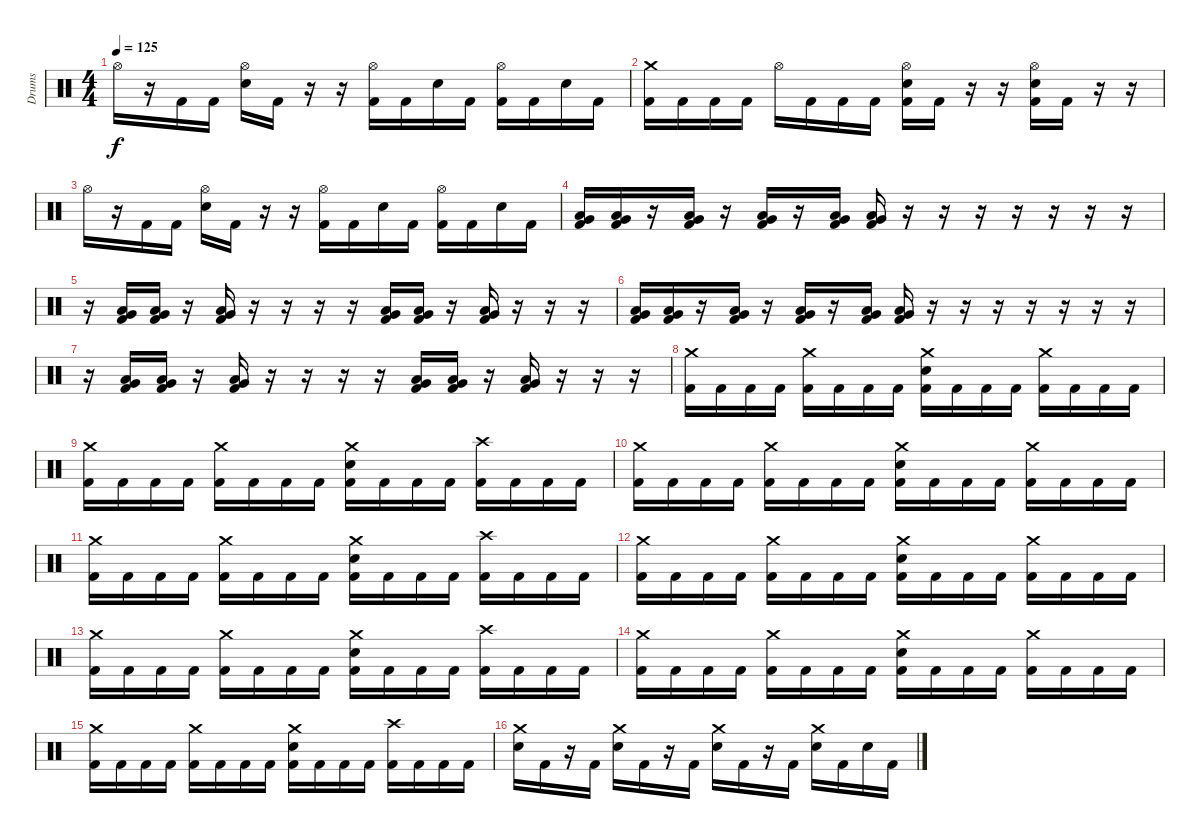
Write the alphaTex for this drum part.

\track ("Drums" "Drums") {instrument percussion}
\staff {score}
\articulation defaults
\ts (4 4)
\tempo 125
\clef neutral
\ks c "Hi-Hat (open)".16{dy f}
r.16 "Kick (hit) 2".16 "Kick (hit) 2".16 ("Hi-Hat (open)" "Electric Snare (hit)").16 "Kick (hit) 2".16 r.16 r.16 ("Hi-Hat (open)" "Kick (hit) 2").16 "Kick (hit) 2".16 "Electric Snare (hit)".16 "Kick (hit) 2".16 ("Hi-Hat (open)" "Kick (hit) 2").16 "Kick (hit) 2".16 "Electric Snare (hit)".16 "Kick (hit) 2".16 |
("Crash medium (hit)" "Kick (hit) 2").16 "Kick (hit) 2".16 "Kick (hit) 2".16 "Kick (hit) 2".16 "Hi-Hat (open)".16 "Kick (hit) 2".16 "Kick (hit) 2".16 "Kick (hit) 2".16 ("Hi-Hat (open)" "Electric Snare (hit)" "Kick (hit) 2").16 "Kick (hit) 2".16 r.16 r.16 ("Hi-Hat (open)" "Electric Snare (hit)" "Kick (hit) 2").16 "Kick (hit) 2".16 r.16 r.16 |
"Hi-Hat (open)".16 r.16 "Kick (hit) 2".16 "Kick (hit) 2".16 ("Hi-Hat (open)" "Electric Snare (hit)").16 "Kick (hit) 2".16 r.16 r.16 ("Hi-Hat (open)" "Kick (hit) 2").16 "Kick (hit) 2".16 "Electric Snare (hit)".16 "Kick (hit) 2".16 ("Hi-Hat (open)" "Kick (hit) 2").16 "Kick (hit) 2".16 "Electric Snare (hit)".16 "Kick (hit) 2".16 |
("Very Low Tom (hit)" "Low Floor Tom (hit)" "Kick (hit) 2").16 ("Very Low Tom (hit)" "Low Floor Tom (hit)" "Kick (hit) 2").16 r.16 ("Very Low Tom (hit)" "Low Floor Tom (hit)" "Kick (hit) 2").16 r.16 ("Very Low Tom (hit)" "Low Floor Tom (hit)" "Kick (hit) 2").16 r.16 ("Very Low Tom (hit)" "Low Floor Tom (hit)" "Kick (hit) 2").16 ("Very Low Tom (hit)" "Low Floor Tom (hit)" "Kick (hit) 2").16 r.16 r.16 r.16 r.16 r.16 r.16 r.16 |
r.16 ("Very Low Tom (hit)" "Low Floor Tom (hit)" "Kick (hit) 2").16 ("Very Low Tom (hit)" "Low Floor Tom (hit)" "Kick (hit) 2").16 r.16 ("Very Low Tom (hit)" "Low Floor Tom (hit)" "Kick (hit) 2").16 r.16 r.16 r.16 r.16 ("Very Low Tom (hit)" "Low Floor Tom (hit)" "Kick (hit) 2").16 ("Very Low Tom (hit)" "Low Floor Tom (hit)" "Kick (hit) 2").16 r.16 ("Very Low Tom (hit)" "Low Floor Tom (hit)" "Kick (hit) 2").16 r.16 r.16 r.16 |
("Very Low Tom (hit)" "Low Floor Tom (hit)" "Kick (hit) 2").16 ("Very Low Tom (hit)" "Low Floor Tom (hit)" "Kick (hit) 2").16 r.16 ("Very Low Tom (hit)" "Low Floor Tom (hit)" "Kick (hit) 2").16 r.16 ("Very Low Tom (hit)" "Low Floor Tom (hit)" "Kick (hit) 2").16 r.16 ("Very Low Tom (hit)" "Low Floor Tom (hit)" "Kick (hit) 2").16 ("Very Low Tom (hit)" "Low Floor Tom (hit)" "Kick (hit) 2").16 r.16 r.16 r.16 r.16 r.16 r.16 r.16 |
r.16 ("Very Low Tom (hit)" "Low Floor Tom (hit)" "Kick (hit) 2").16 ("Very Low Tom (hit)" "Low Floor Tom (hit)" "Kick (hit) 2").16 r.16 ("Very Low Tom (hit)" "Low Floor Tom (hit)" "Kick (hit) 2").16 r.16 r.16 r.16 r.16 ("Very Low Tom (hit)" "Low Floor Tom (hit)" "Kick (hit) 2").16 ("Very Low Tom (hit)" "Low Floor Tom (hit)" "Kick (hit) 2").16 r.16 ("Very Low Tom (hit)" "Low Floor Tom (hit)" "Kick (hit) 2").16 r.16 r.16 r.16 |
("Crash medium (hit)" "Kick (hit) 2").16 "Kick (hit) 2".16 "Kick (hit) 2".16 "Kick (hit) 2".16 ("Crash medium (hit)" "Kick (hit) 2").16 "Kick (hit) 2".16 "Kick (hit) 2".16 "Kick (hit) 2".16 ("Crash medium (hit)" "Electric Snare (hit)" "Kick (hit) 2").16 "Kick (hit) 2".16 "Kick (hit) 2".16 "Kick (hit) 2".16 ("Crash medium (hit)" "Kick (hit) 2").16 "Kick (hit) 2".16 "Kick (hit) 2".16 "Kick (hit) 2".16 |
("Crash medium (hit)" "Kick (hit) 2").16 "Kick (hit) 2".16 "Kick (hit) 2".16 "Kick (hit) 2".16 ("Crash medium (hit)" "Kick (hit) 2").16 "Kick (hit) 2".16 "Kick (hit) 2".16 "Kick (hit) 2".16 ("Crash medium (hit)" "Electric Snare (hit)" "Kick (hit) 2").16 "Kick (hit) 2".16 "Kick (hit) 2".16 "Kick (hit) 2".16 ("Crash high (hit)" "Kick (hit) 2").16 "Kick (hit) 2".16 "Kick (hit) 2".16 "Kick (hit) 2".16 |
("Crash medium (hit)" "Kick (hit) 2").16 "Kick (hit) 2".16 "Kick (hit) 2".16 "Kick (hit) 2".16 ("Crash medium (hit)" "Kick (hit) 2").16 "Kick (hit) 2".16 "Kick (hit) 2".16 "Kick (hit) 2".16 ("Crash medium (hit)" "Electric Snare (hit)" "Kick (hit) 2").16 "Kick (hit) 2".16 "Kick (hit) 2".16 "Kick (hit) 2".16 ("Crash medium (hit)" "Kick (hit) 2").16 "Kick (hit) 2".16 "Kick (hit) 2".16 "Kick (hit) 2".16 |
("Crash medium (hit)" "Kick (hit) 2").16 "Kick (hit) 2".16 "Kick (hit) 2".16 "Kick (hit) 2".16 ("Crash medium (hit)" "Kick (hit) 2").16 "Kick (hit) 2".16 "Kick (hit) 2".16 "Kick (hit) 2".16 ("Crash medium (hit)" "Electric Snare (hit)" "Kick (hit) 2").16 "Kick (hit) 2".16 "Kick (hit) 2".16 "Kick (hit) 2".16 ("Crash high (hit)" "Kick (hit) 2").16 "Kick (hit) 2".16 "Kick (hit) 2".16 "Kick (hit) 2".16 |
("Crash medium (hit)" "Kick (hit) 2").16 "Kick (hit) 2".16 "Kick (hit) 2".16 "Kick (hit) 2".16 ("Crash medium (hit)" "Kick (hit) 2").16 "Kick (hit) 2".16 "Kick (hit) 2".16 "Kick (hit) 2".16 ("Crash medium (hit)" "Electric Snare (hit)" "Kick (hit) 2").16 "Kick (hit) 2".16 "Kick (hit) 2".16 "Kick (hit) 2".16 ("Crash medium (hit)" "Kick (hit) 2").16 "Kick (hit) 2".16 "Kick (hit) 2".16 "Kick (hit) 2".16 |
("Crash medium (hit)" "Kick (hit) 2").16 "Kick (hit) 2".16 "Kick (hit) 2".16 "Kick (hit) 2".16 ("Crash medium (hit)" "Kick (hit) 2").16 "Kick (hit) 2".16 "Kick (hit) 2".16 "Kick (hit) 2".16 ("Crash medium (hit)" "Electric Snare (hit)" "Kick (hit) 2").16 "Kick (hit) 2".16 "Kick (hit) 2".16 "Kick (hit) 2".16 ("Crash high (hit)" "Kick (hit) 2").16 "Kick (hit) 2".16 "Kick (hit) 2".16 "Kick (hit) 2".16 |
("Crash medium (hit)" "Kick (hit) 2").16 "Kick (hit) 2".16 "Kick (hit) 2".16 "Kick (hit) 2".16 ("Crash medium (hit)" "Kick (hit) 2").16 "Kick (hit) 2".16 "Kick (hit) 2".16 "Kick (hit) 2".16 ("Crash medium (hit)" "Electric Snare (hit)" "Kick (hit) 2").16 "Kick (hit) 2".16 "Kick (hit) 2".16 "Kick (hit) 2".16 ("Crash medium (hit)" "Kick (hit) 2").16 "Kick (hit) 2".16 "Kick (hit) 2".16 "Kick (hit) 2".16 |
("Crash medium (hit)" "Kick (hit) 2").16 "Kick (hit) 2".16 "Kick (hit) 2".16 "Kick (hit) 2".16 ("Crash medium (hit)" "Kick (hit) 2").16 "Kick (hit) 2".16 "Kick (hit) 2".16 "Kick (hit) 2".16 ("Crash medium (hit)" "Electric Snare (hit)" "Kick (hit) 2").16 "Kick (hit) 2".16 "Kick (hit) 2".16 "Kick (hit) 2".16 ("Crash high (hit)" "Kick (hit) 2").16 "Kick (hit) 2".16 "Kick (hit) 2".16 "Kick (hit) 2".16 |
("Crash medium (hit)" "Electric Snare (hit)").16 "Kick (hit) 2".16 r.16 "Kick (hit) 2".16 ("Crash medium (hit)" "Electric Snare (hit)").16 "Kick (hit) 2".16 r.16 "Kick (hit) 2".16 ("Crash medium (hit)" "Electric Snare (hit)").16 "Kick (hit) 2".16 r.16 "Kick (hit) 2".16 ("Crash medium (hit)" "Electric Snare (hit)").16 "Kick (hit) 2".16 "Electric Snare (hit)".16 "Kick (hit) 2".16
